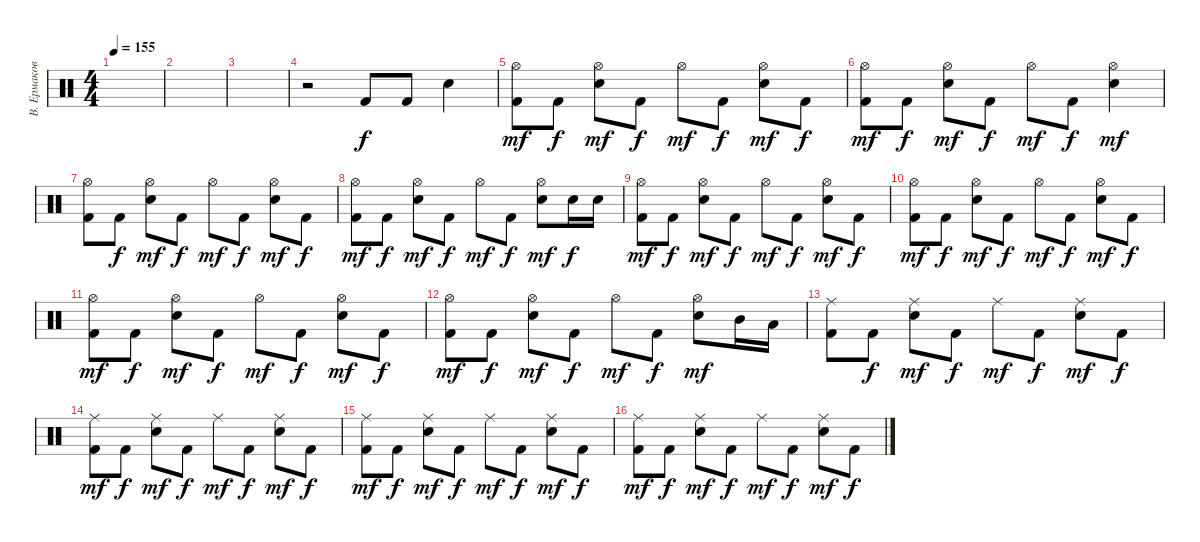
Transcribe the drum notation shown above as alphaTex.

\track ("В. Ермаков" "В. Ермаков") {instrument percussion}
\staff {score}
\articulation defaults
\ts (4 4)
\tempo 155
\clef neutral
\ks c
|
|
|
r.2 "Kick (hit) 2".8 "Kick (hit) 2".8 "Electric Snare (hit)".4 |
("Hi-Hat (open)" "Kick (hit) 2").8{dy mf} "Kick (hit) 2".8{dy f} ("Hi-Hat (open)" "Electric Snare (hit)").8{dy mf} "Kick (hit) 2".8{dy f} "Hi-Hat (open)".8{dy mf} "Kick (hit) 2".8{dy f} ("Hi-Hat (open)" "Electric Snare (hit)").8{dy mf} "Kick (hit) 2".8{dy f} |
("Hi-Hat (open)" "Kick (hit) 2").8{dy mf} "Kick (hit) 2".8{dy f} ("Hi-Hat (open)" "Electric Snare (hit)").8{dy mf} "Kick (hit) 2".8{dy f} "Hi-Hat (open)".8{dy mf} "Kick (hit) 2".8{dy f} ("Hi-Hat (open)" "Electric Snare (hit)").4{dy mf} |
("Hi-Hat (open)" "Kick (hit) 2").8 "Kick (hit) 2".8{dy f} ("Hi-Hat (open)" "Electric Snare (hit)").8{dy mf} "Kick (hit) 2".8{dy f} "Hi-Hat (open)".8{dy mf} "Kick (hit) 2".8{dy f} ("Hi-Hat (open)" "Electric Snare (hit)").8{dy mf} "Kick (hit) 2".8{dy f} |
("Hi-Hat (open)" "Kick (hit) 2").8{dy mf} "Kick (hit) 2".8{dy f} ("Hi-Hat (open)" "Electric Snare (hit)").8{dy mf} "Kick (hit) 2".8{dy f} "Hi-Hat (open)".8{dy mf} "Kick (hit) 2".8{dy f} ("Hi-Hat (open)" "Electric Snare (hit)").8{dy mf} "Electric Snare (hit)".16{dy f} "Electric Snare (hit)".16 |
("Hi-Hat (open)" "Kick (hit) 2").8{dy mf} "Kick (hit) 2".8{dy f} ("Hi-Hat (open)" "Electric Snare (hit)").8{dy mf} "Kick (hit) 2".8{dy f} "Hi-Hat (open)".8{dy mf} "Kick (hit) 2".8{dy f} ("Hi-Hat (open)" "Electric Snare (hit)").8{dy mf} "Kick (hit) 2".8{dy f} |
("Hi-Hat (open)" "Kick (hit) 2").8{dy mf} "Kick (hit) 2".8{dy f} ("Hi-Hat (open)" "Electric Snare (hit)").8{dy mf} "Kick (hit) 2".8{dy f} "Hi-Hat (open)".8{dy mf} "Kick (hit) 2".8{dy f} ("Hi-Hat (open)" "Electric Snare (hit)").8{dy mf} "Kick (hit) 2".8{dy f} |
("Hi-Hat (open)" "Kick (hit) 2").8{dy mf} "Kick (hit) 2".8{dy f} ("Hi-Hat (open)" "Electric Snare (hit)").8{dy mf} "Kick (hit) 2".8{dy f} "Hi-Hat (open)".8{dy mf} "Kick (hit) 2".8{dy f} ("Hi-Hat (open)" "Electric Snare (hit)").8{dy mf} "Kick (hit) 2".8{dy f} |
("Hi-Hat (open)" "Kick (hit) 2").8{dy mf} "Kick (hit) 2".8{dy f} ("Hi-Hat (open)" "Electric Snare (hit)").8{dy mf} "Kick (hit) 2".8{dy f} "Hi-Hat (open)".8{dy mf} "Kick (hit) 2".8{dy f} ("Hi-Hat (open)" "Electric Snare (hit)").8{dy mf} "Mid Tom (hit)".16 "Low Tom (hit)".16 |
("Ride (middle)" "Kick (hit) 2").8 "Kick (hit) 2".8{dy f} ("Ride (middle)" "Electric Snare (hit)").8{dy mf} "Kick (hit) 2".8{dy f} "Ride (middle)".8{dy mf} "Kick (hit) 2".8{dy f} ("Ride (middle)" "Electric Snare (hit)").8{dy mf} "Kick (hit) 2".8{dy f} |
("Ride (middle)" "Kick (hit) 2").8{dy mf} "Kick (hit) 2".8{dy f} ("Ride (middle)" "Electric Snare (hit)").8{dy mf} "Kick (hit) 2".8{dy f} "Ride (middle)".8{dy mf} "Kick (hit) 2".8{dy f} ("Ride (middle)" "Electric Snare (hit)").8{dy mf} "Kick (hit) 2".8{dy f} |
("Ride (middle)" "Kick (hit) 2").8{dy mf} "Kick (hit) 2".8{dy f} ("Ride (middle)" "Electric Snare (hit)").8{dy mf} "Kick (hit) 2".8{dy f} "Ride (middle)".8{dy mf} "Kick (hit) 2".8{dy f} ("Ride (middle)" "Electric Snare (hit)").8{dy mf} "Kick (hit) 2".8{dy f} |
("Ride (middle)" "Kick (hit) 2").8{dy mf} "Kick (hit) 2".8{dy f} ("Ride (middle)" "Electric Snare (hit)").8{dy mf} "Kick (hit) 2".8{dy f} "Ride (middle)".8{dy mf} "Kick (hit) 2".8{dy f} ("Ride (middle)" "Electric Snare (hit)").8{dy mf} "Kick (hit) 2".8{dy f}
